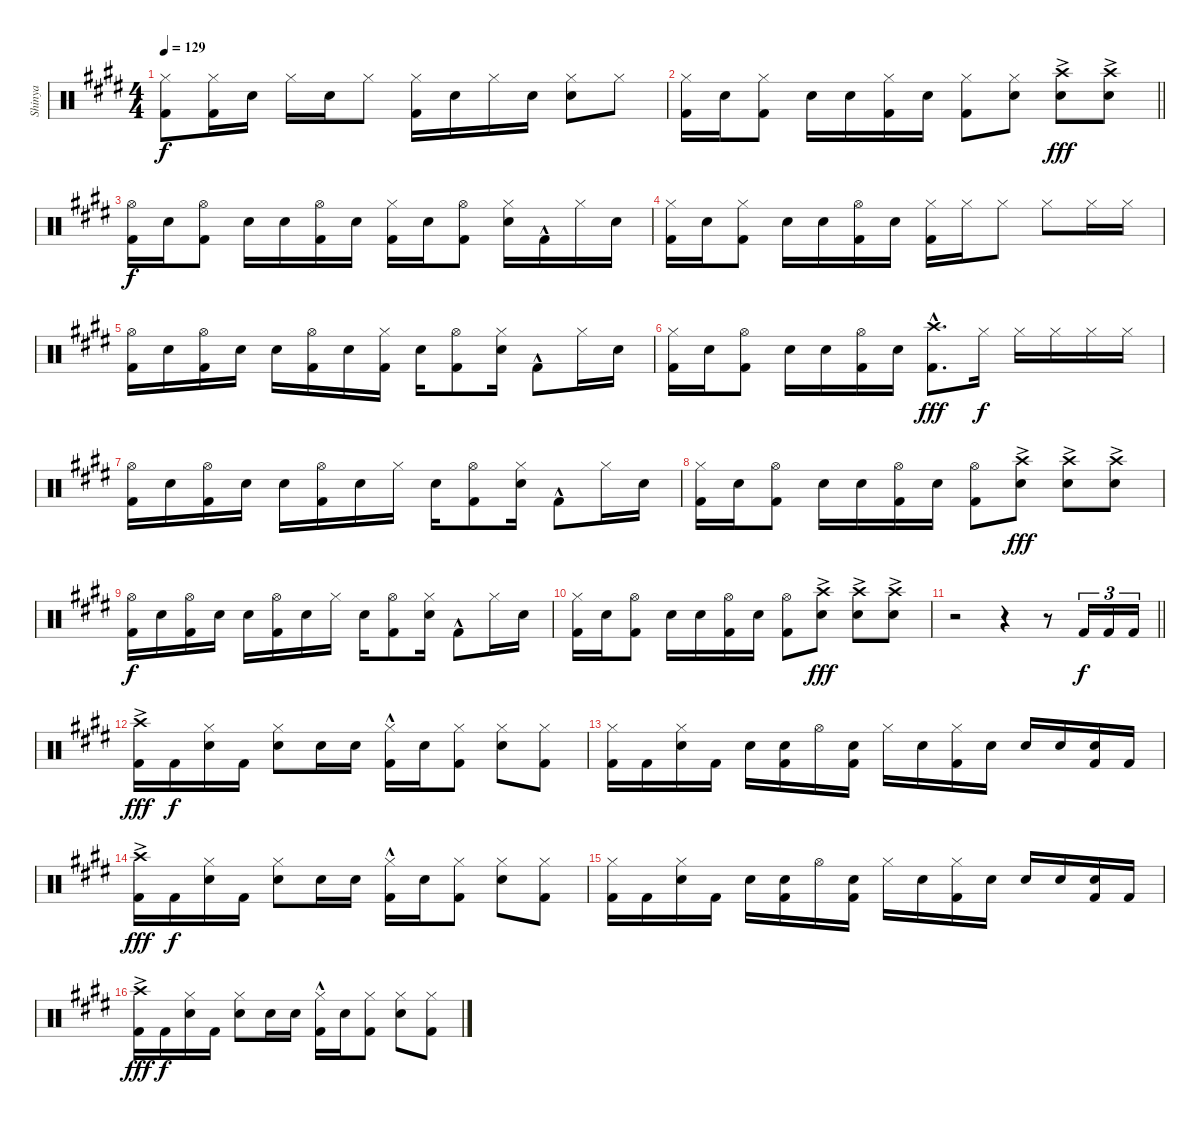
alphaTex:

\track ("Shinya" "Shinya") {instrument percussion}
\staff {score}
\articulation defaults
\ts (4 4)
\tempo 129
\clef neutral
\ks e
("Hi-Hat (closed)" "Kick (hit) 2").8{dy f} ("Hi-Hat (closed)" "Kick (hit) 2").16 "Snare (hit) 2".16 "Hi-Hat (closed)".16 "Snare (hit) 2".16 "Hi-Hat (closed)".8 ("Hi-Hat (closed)" "Kick (hit) 2").16 "Snare (hit) 2".16 "Hi-Hat (closed)".16 "Snare (hit) 2".16 ("Hi-Hat (closed)" "Snare (hit) 2").8 "Hi-Hat (closed)".8 |
\barLineRight lightlight
("Hi-Hat (closed)" "Kick (hit) 2").16 "Snare (hit) 2".16 ("Hi-Hat (closed)" "Kick (hit) 2").8 "Snare (hit) 2".16 "Snare (hit) 2".16 ("Hi-Hat (closed)" "Kick (hit) 2").16 "Snare (hit) 2".16 ("Hi-Hat (closed)" "Kick (hit) 2").8 ("Hi-Hat (closed)" "Snare (hit) 2").8 ("Crash high (hit)"{ac} "Snare (hit) 2").8{dy fff} ("Crash high (hit)"{ac} "Snare (hit) 2").8 |
("Hi-Hat (open)" "Kick (hit) 2").16{dy f} "Snare (hit) 2".16 ("Hi-Hat (open)" "Kick (hit) 2").8 "Snare (hit) 2".16 "Snare (hit) 2".16 ("Hi-Hat (open)" "Kick (hit) 2").16 "Snare (hit) 2".16 ("Hi-Hat (closed)" "Kick (hit) 2").16 "Snare (hit) 2".16 ("Hi-Hat (open)" "Kick (hit) 2").8 ("Hi-Hat (closed)" "Snare (hit) 2").16 "Kick (hit) 2"{hac}.16 "Hi-Hat (closed)".16 "Snare (hit) 2".16 |
("Hi-Hat (closed)" "Kick (hit) 2").16 "Snare (hit) 2".16 ("Hi-Hat (closed)" "Kick (hit) 2").8 "Snare (hit) 2".16 "Snare (hit) 2".16 ("Hi-Hat (open)" "Kick (hit) 2").16 "Snare (hit) 2".16 ("Hi-Hat (closed)" "Kick (hit) 2").16 "Hi-Hat (closed)".16 "Hi-Hat (closed)".8 "Hi-Hat (closed)".8 "Hi-Hat (closed)".16 "Hi-Hat (closed)".16 |
("Hi-Hat (open)" "Kick (hit) 2").16 "Snare (hit) 2".16 ("Hi-Hat (open)" "Kick (hit) 2").16 "Snare (hit) 2".16 "Snare (hit) 2".16 ("Hi-Hat (open)" "Kick (hit) 2").16 "Snare (hit) 2".16 ("Hi-Hat (closed)" "Kick (hit) 2").16 "Snare (hit) 2".16 ("Hi-Hat (open)" "Kick (hit) 2").8 ("Hi-Hat (closed)" "Snare (hit) 2").16 "Kick (hit) 2"{hac}.8 "Hi-Hat (closed)".16 "Snare (hit) 2".16 |
("Hi-Hat (closed)" "Kick (hit) 2").16 "Snare (hit) 2".16 ("Hi-Hat (open)" "Kick (hit) 2").8 "Snare (hit) 2".16 "Snare (hit) 2".16 ("Hi-Hat (open)" "Kick (hit) 2").16 "Snare (hit) 2".16 ("Crash high (hit)"{hac} "Kick (hit) 2"{hac}).8{d dy fff} "Hi-Hat (closed)".16{dy f} "Hi-Hat (closed)".16 "Hi-Hat (closed)".16 "Hi-Hat (closed)".16 "Hi-Hat (closed)".16 |
("Hi-Hat (open)" "Kick (hit) 2").16 "Snare (hit) 2".16 ("Hi-Hat (open)" "Kick (hit) 2").16 "Snare (hit) 2".16 "Snare (hit) 2".16 ("Hi-Hat (open)" "Kick (hit) 2").16 "Snare (hit) 2".16 "Hi-Hat (closed)".16 "Snare (hit) 2".16 ("Hi-Hat (open)" "Kick (hit) 2").8 ("Hi-Hat (closed)" "Snare (hit) 2").16 "Kick (hit) 2"{hac}.8 "Hi-Hat (closed)".16 "Snare (hit) 2".16 |
("Hi-Hat (closed)" "Kick (hit) 2").16 "Snare (hit) 2".16 ("Hi-Hat (open)" "Kick (hit) 2").8 "Snare (hit) 2".16 "Snare (hit) 2".16 ("Hi-Hat (open)" "Kick (hit) 2").16 "Snare (hit) 2".16 ("Hi-Hat (open)" "Kick (hit) 2").8 ("Crash high (hit)"{ac} "Snare (hit) 2").8{dy fff} ("Crash high (hit)"{ac} "Snare (hit) 2").8 ("Crash high (hit)"{ac} "Snare (hit) 2").8 |
("Hi-Hat (open)" "Kick (hit) 2").16{dy f} "Snare (hit) 2".16 ("Hi-Hat (open)" "Kick (hit) 2").16 "Snare (hit) 2".16 "Snare (hit) 2".16 ("Hi-Hat (open)" "Kick (hit) 2").16 "Snare (hit) 2".16 "Hi-Hat (closed)".16 "Snare (hit) 2".16 ("Hi-Hat (open)" "Kick (hit) 2").8 ("Hi-Hat (closed)" "Snare (hit) 2").16 "Kick (hit) 2"{hac}.8 "Hi-Hat (closed)".16 "Snare (hit) 2".16 |
("Hi-Hat (closed)" "Kick (hit) 2").16 "Snare (hit) 2".16 ("Hi-Hat (open)" "Kick (hit) 2").8 "Snare (hit) 2".16 "Snare (hit) 2".16 ("Hi-Hat (open)" "Kick (hit) 2").16 "Snare (hit) 2".16 ("Hi-Hat (open)" "Kick (hit) 2").8 ("Crash high (hit)"{ac} "Snare (hit) 2").8{dy fff} ("Crash high (hit)"{ac} "Snare (hit) 2").8 ("Crash high (hit)"{ac} "Snare (hit) 2").8 |
\barLineRight lightlight
r.2 r.4 r.8 "Kick (hit) 2".16{tu (3 2) dy f} "Kick (hit) 2".16{tu (3 2)} "Kick (hit) 2".16{tu (3 2)} |
("Crash high (hit)"{ac} "Kick (hit) 2").16{dy fff} "Kick (hit) 2".16{dy f} ("Hi-Hat (closed)" "Snare (hit) 2").16 "Kick (hit) 2".16 ("Hi-Hat (closed)" "Snare (hit) 2").8 "Snare (hit) 2".16 "Snare (hit) 2".16 ("Hi-Hat (closed)" "Kick (hit) 2"{hac}).16 "Snare (hit) 2".16 ("Hi-Hat (closed)" "Kick (hit) 2").8 ("Hi-Hat (closed)" "Snare (hit) 2").8 ("Hi-Hat (closed)" "Kick (hit) 2").8 |
("Hi-Hat (closed)" "Kick (hit) 2").16 "Kick (hit) 2".16 ("Hi-Hat (closed)" "Snare (hit) 2").16 "Kick (hit) 2".16 "Snare (hit) 2".16 ("Snare (hit) 2" "Kick (hit) 2").16 "Hi-Hat (open)".16 ("Snare (hit) 2" "Kick (hit) 2").16 "Hi-Hat (closed)".16 "Snare (hit) 2".16 ("Hi-Hat (closed)" "Kick (hit) 2").16 "Snare (hit) 2".16 "Snare (hit) 2".16 "Snare (hit) 2".16 ("Snare (hit) 2" "Kick (hit) 2").16 "Kick (hit) 2".16 |
("Crash high (hit)"{ac} "Kick (hit) 2").16{dy fff} "Kick (hit) 2".16{dy f} ("Hi-Hat (closed)" "Snare (hit) 2").16 "Kick (hit) 2".16 ("Hi-Hat (closed)" "Snare (hit) 2").8 "Snare (hit) 2".16 "Snare (hit) 2".16 ("Hi-Hat (closed)" "Kick (hit) 2"{hac}).16 "Snare (hit) 2".16 ("Hi-Hat (closed)" "Kick (hit) 2").8 ("Hi-Hat (closed)" "Snare (hit) 2").8 ("Hi-Hat (closed)" "Kick (hit) 2").8 |
("Hi-Hat (closed)" "Kick (hit) 2").16 "Kick (hit) 2".16 ("Hi-Hat (closed)" "Snare (hit) 2").16 "Kick (hit) 2".16 "Snare (hit) 2".16 ("Snare (hit) 2" "Kick (hit) 2").16 "Hi-Hat (open)".16 ("Snare (hit) 2" "Kick (hit) 2").16 "Hi-Hat (closed)".16 "Snare (hit) 2".16 ("Hi-Hat (closed)" "Kick (hit) 2").16 "Snare (hit) 2".16 "Snare (hit) 2".16 "Snare (hit) 2".16 ("Snare (hit) 2" "Kick (hit) 2").16 "Kick (hit) 2".16 |
("Crash high (hit)"{ac} "Kick (hit) 2").16{dy fff} "Kick (hit) 2".16{dy f} ("Hi-Hat (closed)" "Snare (hit) 2").16 "Kick (hit) 2".16 ("Hi-Hat (closed)" "Snare (hit) 2").8 "Snare (hit) 2".16 "Snare (hit) 2".16 ("Hi-Hat (closed)" "Kick (hit) 2"{hac}).16 "Snare (hit) 2".16 ("Hi-Hat (closed)" "Kick (hit) 2").8 ("Hi-Hat (closed)" "Snare (hit) 2").8 ("Hi-Hat (closed)" "Kick (hit) 2").8
